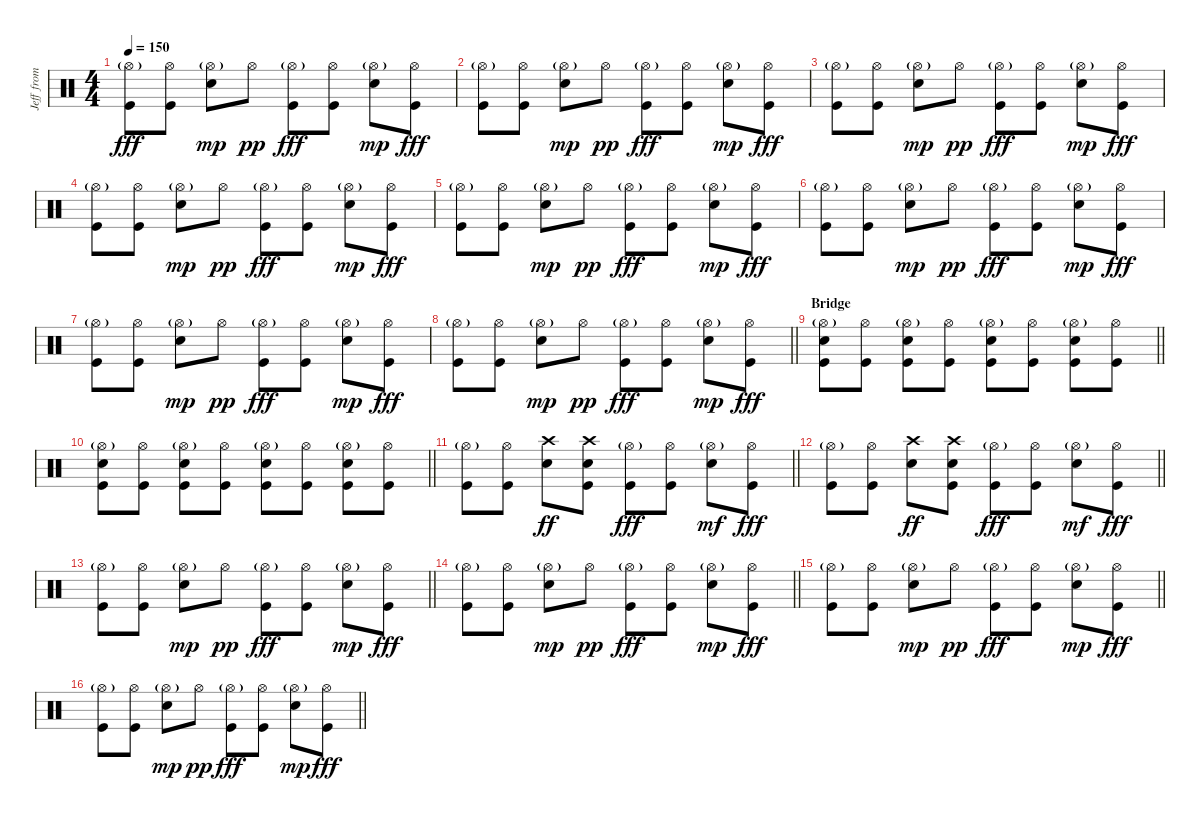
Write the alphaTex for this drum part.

\track ("Jeff from Chelsea - Drum" "Jeff from ") {instrument percussion bank 27}
\staff {score}
\articulation defaults
\ts (4 4)
\tempo 150
\clef neutral
\ks c
("Hi-Hat (open)"{g} "Kick (hit)").8{dy fff} ("Hi-Hat (open)" "Kick (hit)").8 ("Hi-Hat (open)"{g} "Snare (hit) 2").8{dy mp} "Hi-Hat (open)".8{dy pp} ("Hi-Hat (open)"{g} "Kick (hit)").8{dy fff} ("Hi-Hat (open)" "Kick (hit)").8 ("Hi-Hat (open)"{g} "Snare (hit) 2").8{dy mp} ("Hi-Hat (open)" "Kick (hit)").8{dy fff} |
("Hi-Hat (open)"{g} "Kick (hit)").8 ("Hi-Hat (open)" "Kick (hit)").8 ("Hi-Hat (open)"{g} "Snare (hit) 2").8{dy mp} "Hi-Hat (open)".8{dy pp} ("Hi-Hat (open)"{g} "Kick (hit)").8{dy fff} ("Hi-Hat (open)" "Kick (hit)").8 ("Hi-Hat (open)"{g} "Snare (hit) 2").8{dy mp} ("Hi-Hat (open)" "Kick (hit)").8{dy fff} |
("Hi-Hat (open)"{g} "Kick (hit)").8 ("Hi-Hat (open)" "Kick (hit)").8 ("Hi-Hat (open)"{g} "Snare (hit) 2").8{dy mp} "Hi-Hat (open)".8{dy pp} ("Hi-Hat (open)"{g} "Kick (hit)").8{dy fff} ("Hi-Hat (open)" "Kick (hit)").8 ("Hi-Hat (open)"{g} "Snare (hit) 2").8{dy mp} ("Hi-Hat (open)" "Kick (hit)").8{dy fff} |
("Hi-Hat (open)"{g} "Kick (hit)").8 ("Hi-Hat (open)" "Kick (hit)").8 ("Hi-Hat (open)"{g} "Snare (hit) 2").8{dy mp} "Hi-Hat (open)".8{dy pp} ("Hi-Hat (open)"{g} "Kick (hit)").8{dy fff} ("Hi-Hat (open)" "Kick (hit)").8 ("Hi-Hat (open)"{g} "Snare (hit) 2").8{dy mp} ("Hi-Hat (open)" "Kick (hit)").8{dy fff} |
("Hi-Hat (open)"{g} "Kick (hit)").8 ("Hi-Hat (open)" "Kick (hit)").8 ("Hi-Hat (open)"{g} "Snare (hit) 2").8{dy mp} "Hi-Hat (open)".8{dy pp} ("Hi-Hat (open)"{g} "Kick (hit)").8{dy fff} ("Hi-Hat (open)" "Kick (hit)").8 ("Hi-Hat (open)"{g} "Snare (hit) 2").8{dy mp} ("Hi-Hat (open)" "Kick (hit)").8{dy fff} |
("Hi-Hat (open)"{g} "Kick (hit)").8 ("Hi-Hat (open)" "Kick (hit)").8 ("Hi-Hat (open)"{g} "Snare (hit) 2").8{dy mp} "Hi-Hat (open)".8{dy pp} ("Hi-Hat (open)"{g} "Kick (hit)").8{dy fff} ("Hi-Hat (open)" "Kick (hit)").8 ("Hi-Hat (open)"{g} "Snare (hit) 2").8{dy mp} ("Hi-Hat (open)" "Kick (hit)").8{dy fff} |
("Hi-Hat (open)"{g} "Kick (hit)").8 ("Hi-Hat (open)" "Kick (hit)").8 ("Hi-Hat (open)"{g} "Snare (hit) 2").8{dy mp} "Hi-Hat (open)".8{dy pp} ("Hi-Hat (open)"{g} "Kick (hit)").8{dy fff} ("Hi-Hat (open)" "Kick (hit)").8 ("Hi-Hat (open)"{g} "Snare (hit) 2").8{dy mp} ("Hi-Hat (open)" "Kick (hit)").8{dy fff} |
\barLineRight lightlight
("Hi-Hat (open)"{g} "Kick (hit)").8 ("Hi-Hat (open)" "Kick (hit)").8 ("Hi-Hat (open)"{g} "Snare (hit) 2").8{dy mp} "Hi-Hat (open)".8{dy pp} ("Hi-Hat (open)"{g} "Kick (hit)").8{dy fff} ("Hi-Hat (open)" "Kick (hit)").8 ("Hi-Hat (open)"{g} "Snare (hit) 2").8{dy mp} ("Hi-Hat (open)" "Kick (hit)").8{dy fff} |
\section ("" "Bridge")
\barLineRight lightlight
("Hi-Hat (open)"{g} "Snare (hit) 2" "Kick (hit)").8 ("Hi-Hat (open)" "Kick (hit)").8 ("Hi-Hat (open)"{g} "Snare (hit) 2" "Kick (hit)").8 ("Hi-Hat (open)" "Kick (hit)").8 ("Hi-Hat (open)"{g} "Snare (hit) 2" "Kick (hit)").8 ("Hi-Hat (open)" "Kick (hit)").8 ("Hi-Hat (open)"{g} "Snare (hit) 2" "Kick (hit)").8 ("Hi-Hat (open)" "Kick (hit)").8 |
\barLineRight lightlight
("Hi-Hat (open)"{g} "Snare (hit) 2" "Kick (hit)").8 ("Hi-Hat (open)" "Kick (hit)").8 ("Hi-Hat (open)"{g} "Snare (hit) 2" "Kick (hit)").8 ("Hi-Hat (open)" "Kick (hit)").8 ("Hi-Hat (open)"{g} "Snare (hit) 2" "Kick (hit)").8 ("Hi-Hat (open)" "Kick (hit)").8 ("Hi-Hat (open)"{g} "Snare (hit) 2" "Kick (hit)").8 ("Hi-Hat (open)" "Kick (hit)").8 |
\barLineRight lightlight
("Hi-Hat (open)"{g} "Kick (hit)").8 ("Hi-Hat (open)" "Kick (hit)").8 ("Crash high (hit)" "Snare (hit) 2").8{dy ff} ("Crash high (hit)" "Snare (hit) 2" "Kick (hit)").8 ("Hi-Hat (open)"{g} "Kick (hit)").8{dy fff} ("Hi-Hat (open)" "Kick (hit)").8 ("Hi-Hat (open)"{g} "Snare (hit) 2").8{dy mf} ("Hi-Hat (open)" "Kick (hit)").8{dy fff} |
\barLineRight lightlight
("Hi-Hat (open)"{g} "Kick (hit)").8 ("Hi-Hat (open)" "Kick (hit)").8 ("Crash high (hit)" "Snare (hit) 2").8{dy ff} ("Crash high (hit)" "Snare (hit) 2" "Kick (hit)").8 ("Hi-Hat (open)"{g} "Kick (hit)").8{dy fff} ("Hi-Hat (open)" "Kick (hit)").8 ("Hi-Hat (open)"{g} "Snare (hit) 2").8{dy mf} ("Hi-Hat (open)" "Kick (hit)").8{dy fff} |
\barLineRight lightlight
("Hi-Hat (open)"{g} "Kick (hit)").8 ("Hi-Hat (open)" "Kick (hit)").8 ("Hi-Hat (open)"{g} "Snare (hit) 2").8{dy mp} "Hi-Hat (open)".8{dy pp} ("Hi-Hat (open)"{g} "Kick (hit)").8{dy fff} ("Hi-Hat (open)" "Kick (hit)").8 ("Hi-Hat (open)"{g} "Snare (hit) 2").8{dy mp} ("Hi-Hat (open)" "Kick (hit)").8{dy fff} |
\barLineRight lightlight
("Hi-Hat (open)"{g} "Kick (hit)").8 ("Hi-Hat (open)" "Kick (hit)").8 ("Hi-Hat (open)"{g} "Snare (hit) 2").8{dy mp} "Hi-Hat (open)".8{dy pp} ("Hi-Hat (open)"{g} "Kick (hit)").8{dy fff} ("Hi-Hat (open)" "Kick (hit)").8 ("Hi-Hat (open)"{g} "Snare (hit) 2").8{dy mp} ("Hi-Hat (open)" "Kick (hit)").8{dy fff} |
\barLineRight lightlight
("Hi-Hat (open)"{g} "Kick (hit)").8 ("Hi-Hat (open)" "Kick (hit)").8 ("Hi-Hat (open)"{g} "Snare (hit) 2").8{dy mp} "Hi-Hat (open)".8{dy pp} ("Hi-Hat (open)"{g} "Kick (hit)").8{dy fff} ("Hi-Hat (open)" "Kick (hit)").8 ("Hi-Hat (open)"{g} "Snare (hit) 2").8{dy mp} ("Hi-Hat (open)" "Kick (hit)").8{dy fff} |
\barLineRight lightlight
("Hi-Hat (open)"{g} "Kick (hit)").8 ("Hi-Hat (open)" "Kick (hit)").8 ("Hi-Hat (open)"{g} "Snare (hit) 2").8{dy mp} "Hi-Hat (open)".8{dy pp} ("Hi-Hat (open)"{g} "Kick (hit)").8{dy fff} ("Hi-Hat (open)" "Kick (hit)").8 ("Hi-Hat (open)"{g} "Snare (hit) 2").8{dy mp} ("Hi-Hat (open)" "Kick (hit)").8{dy fff}
